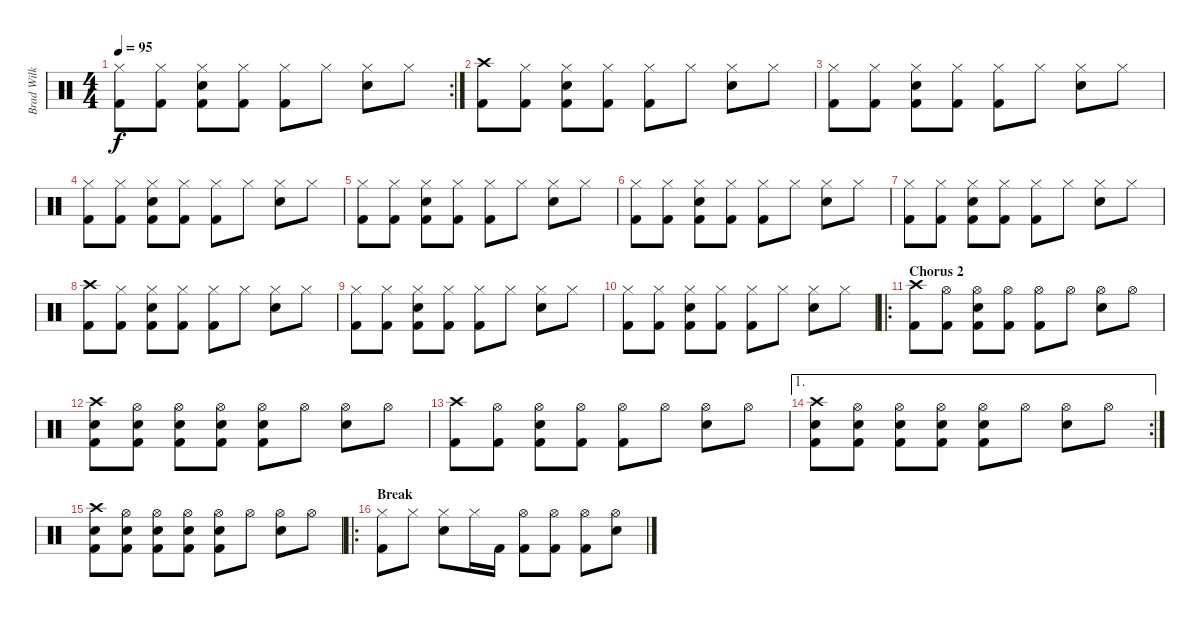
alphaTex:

\track ("Brad Wilk" "Brad Wilk") {instrument percussion}
\staff {score}
\articulation defaults
\rc 2
\ts (4 4)
\tempo 95
\clef neutral
\ks c
("Hi-Hat (closed)" "Kick (hit) 2").8{dy f} ("Hi-Hat (closed)" "Kick (hit) 2").8 ("Hi-Hat (closed)" "Electric Snare (hit)" "Kick (hit) 2").8 ("Hi-Hat (closed)" "Kick (hit) 2").8 ("Hi-Hat (closed)" "Kick (hit) 2").8 "Hi-Hat (closed)".8 ("Hi-Hat (closed)" "Electric Snare (hit)").8 "Hi-Hat (closed)".8 |
("Crash high (hit)" "Kick (hit) 2").8 ("Hi-Hat (closed)" "Kick (hit) 2").8 ("Hi-Hat (closed)" "Electric Snare (hit)" "Kick (hit) 2").8 ("Hi-Hat (closed)" "Kick (hit) 2").8 ("Hi-Hat (closed)" "Kick (hit) 2").8 "Hi-Hat (closed)".8 ("Hi-Hat (closed)" "Electric Snare (hit)").8 "Hi-Hat (closed)".8 |
("Hi-Hat (closed)" "Kick (hit) 2").8 ("Hi-Hat (closed)" "Kick (hit) 2").8 ("Hi-Hat (closed)" "Electric Snare (hit)" "Kick (hit) 2").8 ("Hi-Hat (closed)" "Kick (hit) 2").8 ("Hi-Hat (closed)" "Kick (hit) 2").8 "Hi-Hat (closed)".8 ("Hi-Hat (closed)" "Electric Snare (hit)").8 "Hi-Hat (closed)".8 |
("Hi-Hat (closed)" "Kick (hit) 2").8 ("Hi-Hat (closed)" "Kick (hit) 2").8 ("Hi-Hat (closed)" "Electric Snare (hit)" "Kick (hit) 2").8 ("Hi-Hat (closed)" "Kick (hit) 2").8 ("Hi-Hat (closed)" "Kick (hit) 2").8 "Hi-Hat (closed)".8 ("Hi-Hat (closed)" "Electric Snare (hit)").8 "Hi-Hat (closed)".8 |
("Hi-Hat (closed)" "Kick (hit) 2").8 ("Hi-Hat (closed)" "Kick (hit) 2").8 ("Hi-Hat (closed)" "Electric Snare (hit)" "Kick (hit) 2").8 ("Hi-Hat (closed)" "Kick (hit) 2").8 ("Hi-Hat (closed)" "Kick (hit) 2").8 "Hi-Hat (closed)".8 ("Hi-Hat (closed)" "Electric Snare (hit)").8 "Hi-Hat (closed)".8 |
("Hi-Hat (closed)" "Kick (hit) 2").8 ("Hi-Hat (closed)" "Kick (hit) 2").8 ("Hi-Hat (closed)" "Electric Snare (hit)" "Kick (hit) 2").8 ("Hi-Hat (closed)" "Kick (hit) 2").8 ("Hi-Hat (closed)" "Kick (hit) 2").8 "Hi-Hat (closed)".8 ("Hi-Hat (closed)" "Electric Snare (hit)").8 "Hi-Hat (closed)".8 |
("Hi-Hat (closed)" "Kick (hit) 2").8 ("Hi-Hat (closed)" "Kick (hit) 2").8 ("Hi-Hat (closed)" "Electric Snare (hit)" "Kick (hit) 2").8 ("Hi-Hat (closed)" "Kick (hit) 2").8 ("Hi-Hat (closed)" "Kick (hit) 2").8 "Hi-Hat (closed)".8 ("Hi-Hat (closed)" "Electric Snare (hit)").8 "Hi-Hat (closed)".8 |
("Crash high (hit)" "Kick (hit) 2").8 ("Hi-Hat (closed)" "Kick (hit) 2").8 ("Hi-Hat (closed)" "Electric Snare (hit)" "Kick (hit) 2").8 ("Hi-Hat (closed)" "Kick (hit) 2").8 ("Hi-Hat (closed)" "Kick (hit) 2").8 "Hi-Hat (closed)".8 ("Hi-Hat (closed)" "Electric Snare (hit)").8 "Hi-Hat (closed)".8 |
("Hi-Hat (closed)" "Kick (hit) 2").8 ("Hi-Hat (closed)" "Kick (hit) 2").8 ("Hi-Hat (closed)" "Electric Snare (hit)" "Kick (hit) 2").8 ("Hi-Hat (closed)" "Kick (hit) 2").8 ("Hi-Hat (closed)" "Kick (hit) 2").8 "Hi-Hat (closed)".8 ("Hi-Hat (closed)" "Electric Snare (hit)").8 "Hi-Hat (closed)".8 |
("Hi-Hat (closed)" "Kick (hit) 2").8 ("Hi-Hat (closed)" "Kick (hit) 2").8 ("Hi-Hat (closed)" "Electric Snare (hit)" "Kick (hit) 2").8 ("Hi-Hat (closed)" "Kick (hit) 2").8 ("Hi-Hat (closed)" "Kick (hit) 2").8 "Hi-Hat (closed)".8 ("Hi-Hat (closed)" "Electric Snare (hit)").8 "Hi-Hat (closed)".8 |
\ro
\section ("" "Chorus 2")
("Crash high (hit)" "Kick (hit) 2").8 ("Hi-Hat (open)" "Kick (hit) 2").8 ("Hi-Hat (open)" "Electric Snare (hit)" "Kick (hit) 2").8 ("Hi-Hat (open)" "Kick (hit) 2").8 ("Hi-Hat (open)" "Kick (hit) 2").8 "Hi-Hat (open)".8 ("Hi-Hat (open)" "Electric Snare (hit)").8 "Hi-Hat (open)".8 |
("Crash high (hit)" "Electric Snare (hit)" "Kick (hit) 2").8 ("Hi-Hat (open)" "Electric Snare (hit)" "Kick (hit) 2").8 ("Hi-Hat (open)" "Electric Snare (hit)" "Kick (hit) 2").8 ("Hi-Hat (open)" "Electric Snare (hit)" "Kick (hit) 2").8 ("Hi-Hat (open)" "Electric Snare (hit)" "Kick (hit) 2").8 "Hi-Hat (open)".8 ("Hi-Hat (open)" "Electric Snare (hit)").8 "Hi-Hat (open)".8 |
("Crash high (hit)" "Kick (hit) 2").8 ("Hi-Hat (open)" "Kick (hit) 2").8 ("Hi-Hat (open)" "Electric Snare (hit)" "Kick (hit) 2").8 ("Hi-Hat (open)" "Kick (hit) 2").8 ("Hi-Hat (open)" "Kick (hit) 2").8 "Hi-Hat (open)".8 ("Hi-Hat (open)" "Electric Snare (hit)").8 "Hi-Hat (open)".8 |
\ae 1
\rc 2
("Crash high (hit)" "Electric Snare (hit)" "Kick (hit) 2").8 ("Hi-Hat (open)" "Electric Snare (hit)" "Kick (hit) 2").8 ("Hi-Hat (open)" "Electric Snare (hit)" "Kick (hit) 2").8 ("Hi-Hat (open)" "Electric Snare (hit)" "Kick (hit) 2").8 ("Hi-Hat (open)" "Electric Snare (hit)" "Kick (hit) 2").8 "Hi-Hat (open)".8 ("Hi-Hat (open)" "Electric Snare (hit)").8 "Hi-Hat (open)".8 |
("Crash high (hit)" "Electric Snare (hit)" "Kick (hit) 2").8 ("Hi-Hat (open)" "Electric Snare (hit)" "Kick (hit) 2").8 ("Hi-Hat (open)" "Electric Snare (hit)" "Kick (hit) 2").8 ("Hi-Hat (open)" "Electric Snare (hit)" "Kick (hit) 2").8 ("Hi-Hat (open)" "Electric Snare (hit)" "Kick (hit) 2").8 "Hi-Hat (open)".8 ("Hi-Hat (open)" "Electric Snare (hit)").8 "Hi-Hat (open)".8 |
\ro
\section ("" "Break")
("Hi-Hat (closed)" "Kick (hit) 2").8 "Hi-Hat (closed)".8 ("Hi-Hat (closed)" "Electric Snare (hit)").8 "Hi-Hat (closed)".16 "Kick (hit) 2".16 ("Hi-Hat (open)" "Kick (hit) 2").8 ("Hi-Hat (open)" "Kick (hit) 2").8 ("Hi-Hat (open)" "Kick (hit) 2").8 ("Hi-Hat (open)" "Electric Snare (hit)").8
